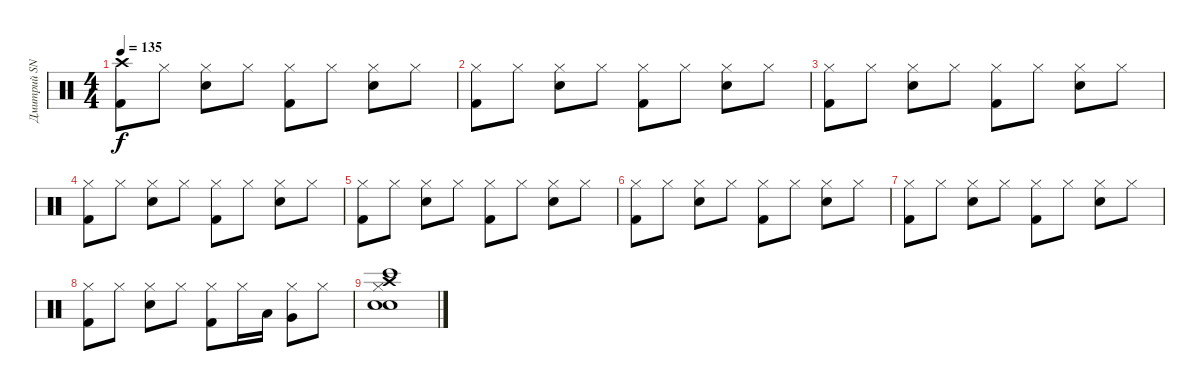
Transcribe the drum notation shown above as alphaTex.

\track ("Дмитрий SNAKE Хакимов" "Дмитрий SN") {instrument percussion}
\staff {score}
\articulation defaults
\ts (4 4)
\tempo 135
\clef neutral
\ks c
("Crash high (hit)" "Kick (hit) 2").8{dy f} "Hi-Hat (closed)".8 ("Hi-Hat (closed)" "Electric Snare (hit)").8 "Hi-Hat (closed)".8 ("Hi-Hat (closed)" "Kick (hit) 2").8 "Hi-Hat (closed)".8 ("Hi-Hat (closed)" "Electric Snare (hit)").8 "Hi-Hat (closed)".8 |
("Hi-Hat (closed)" "Kick (hit) 2").8 "Hi-Hat (closed)".8 ("Hi-Hat (closed)" "Electric Snare (hit)").8 "Hi-Hat (closed)".8 ("Hi-Hat (closed)" "Kick (hit) 2").8 "Hi-Hat (closed)".8 ("Hi-Hat (closed)" "Electric Snare (hit)").8 "Hi-Hat (closed)".8 |
("Hi-Hat (closed)" "Kick (hit) 2").8 "Hi-Hat (closed)".8 ("Hi-Hat (closed)" "Electric Snare (hit)").8 "Hi-Hat (closed)".8 ("Hi-Hat (closed)" "Kick (hit) 2").8 "Hi-Hat (closed)".8 ("Hi-Hat (closed)" "Electric Snare (hit)").8 "Hi-Hat (closed)".8 |
("Hi-Hat (closed)" "Kick (hit) 2").8 "Hi-Hat (closed)".8 ("Hi-Hat (closed)" "Electric Snare (hit)").8 "Hi-Hat (closed)".8 ("Hi-Hat (closed)" "Kick (hit) 2").8 "Hi-Hat (closed)".8 ("Hi-Hat (closed)" "Electric Snare (hit)").8 "Hi-Hat (closed)".8 |
("Hi-Hat (closed)" "Kick (hit) 2").8 "Hi-Hat (closed)".8 ("Hi-Hat (closed)" "Electric Snare (hit)").8 "Hi-Hat (closed)".8 ("Hi-Hat (closed)" "Kick (hit) 2").8 "Hi-Hat (closed)".8 ("Hi-Hat (closed)" "Electric Snare (hit)").8 "Hi-Hat (closed)".8 |
("Hi-Hat (closed)" "Kick (hit) 2").8 "Hi-Hat (closed)".8 ("Hi-Hat (closed)" "Electric Snare (hit)").8 "Hi-Hat (closed)".8 ("Hi-Hat (closed)" "Kick (hit) 2").8 "Hi-Hat (closed)".8 ("Hi-Hat (closed)" "Electric Snare (hit)").8 "Hi-Hat (closed)".8 |
("Hi-Hat (closed)" "Kick (hit) 2").8 "Hi-Hat (closed)".8 ("Hi-Hat (closed)" "Electric Snare (hit)").8 "Hi-Hat (closed)".8 ("Hi-Hat (closed)" "Kick (hit) 2").8 "Hi-Hat (closed)".8 ("Hi-Hat (closed)" "Electric Snare (hit)").8 "Hi-Hat (closed)".8 |
("Hi-Hat (closed)" "Kick (hit) 2").8 "Hi-Hat (closed)".8 ("Hi-Hat (closed)" "Electric Snare (hit)").8 "Hi-Hat (closed)".8 ("Hi-Hat (closed)" "Kick (hit) 2").8 "Hi-Hat (closed)".16 "Low Tom (hit)".16 ("Hi-Hat (closed)" "Very Low Tom (hit)").8 "Hi-Hat (closed)".8 |
("Crash high (hit)" "Bongo High (hit)" "Electric Snare (hit)" "Snare (hit) 2" "Hi-Hat (closed)").1
